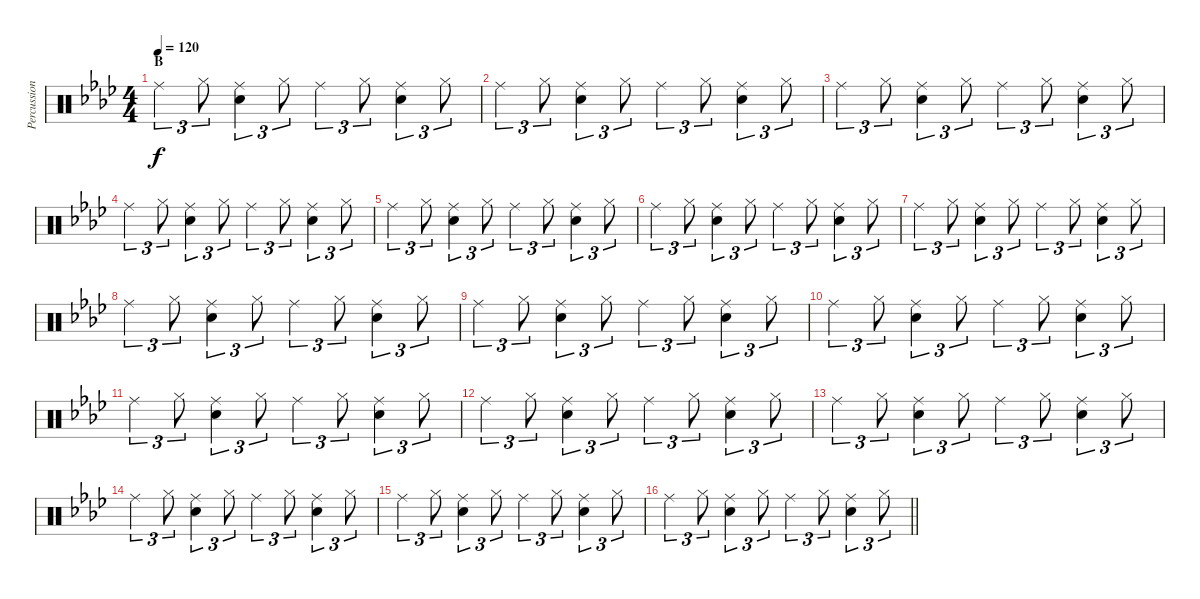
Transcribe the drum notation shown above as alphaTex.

\track ("Percussion" "Percussion") {instrument percussion}
\staff {score}
\articulation defaults
\ts (4 4)
\section ("" "B")
\tempo 120
\clef neutral
\ks ab "Ride (middle)".4{tu (3 2) dy f} "Hi-Hat (closed)".8{tu (3 2)}
("Ride (middle)" "Snare (hit) 2").4{tu (3 2)} "Hi-Hat (closed)".8{tu (3 2)} "Ride (middle)".4{tu (3 2)} "Hi-Hat (closed)".8{tu (3 2)} ("Ride (middle)" "Snare (hit) 2").4{tu (3 2)} "Hi-Hat (closed)".8{tu (3 2)} |
"Ride (middle)".4{tu (3 2)} "Hi-Hat (closed)".8{tu (3 2)} ("Ride (middle)" "Snare (hit) 2").4{tu (3 2)} "Hi-Hat (closed)".8{tu (3 2)} "Ride (middle)".4{tu (3 2)} "Hi-Hat (closed)".8{tu (3 2)} ("Ride (middle)" "Snare (hit) 2").4{tu (3 2)} "Hi-Hat (closed)".8{tu (3 2)} |
"Ride (middle)".4{tu (3 2)} "Hi-Hat (closed)".8{tu (3 2)} ("Ride (middle)" "Snare (hit) 2").4{tu (3 2)} "Hi-Hat (closed)".8{tu (3 2)} "Ride (middle)".4{tu (3 2)} "Hi-Hat (closed)".8{tu (3 2)} ("Ride (middle)" "Snare (hit) 2").4{tu (3 2)} "Hi-Hat (closed)".8{tu (3 2)} |
"Ride (middle)".4{tu (3 2)} "Hi-Hat (closed)".8{tu (3 2)} ("Ride (middle)" "Snare (hit) 2").4{tu (3 2)} "Hi-Hat (closed)".8{tu (3 2)} "Ride (middle)".4{tu (3 2)} "Hi-Hat (closed)".8{tu (3 2)} ("Ride (middle)" "Snare (hit) 2").4{tu (3 2)} "Hi-Hat (closed)".8{tu (3 2)} |
"Ride (middle)".4{tu (3 2)} "Hi-Hat (closed)".8{tu (3 2)} ("Ride (middle)" "Snare (hit) 2").4{tu (3 2)} "Hi-Hat (closed)".8{tu (3 2)} "Ride (middle)".4{tu (3 2)} "Hi-Hat (closed)".8{tu (3 2)} ("Ride (middle)" "Snare (hit) 2").4{tu (3 2)} "Hi-Hat (closed)".8{tu (3 2)} |
"Ride (middle)".4{tu (3 2)} "Hi-Hat (closed)".8{tu (3 2)} ("Ride (middle)" "Snare (hit) 2").4{tu (3 2)} "Hi-Hat (closed)".8{tu (3 2)} "Ride (middle)".4{tu (3 2)} "Hi-Hat (closed)".8{tu (3 2)} ("Ride (middle)" "Snare (hit) 2").4{tu (3 2)} "Hi-Hat (closed)".8{tu (3 2)} |
"Ride (middle)".4{tu (3 2)} "Hi-Hat (closed)".8{tu (3 2)} ("Ride (middle)" "Snare (hit) 2").4{tu (3 2)} "Hi-Hat (closed)".8{tu (3 2)} "Ride (middle)".4{tu (3 2)} "Hi-Hat (closed)".8{tu (3 2)} ("Ride (middle)" "Snare (hit) 2").4{tu (3 2)} "Hi-Hat (closed)".8{tu (3 2)} |
"Ride (middle)".4{tu (3 2)} "Hi-Hat (closed)".8{tu (3 2)} ("Ride (middle)" "Snare (hit) 2").4{tu (3 2)} "Hi-Hat (closed)".8{tu (3 2)} "Ride (middle)".4{tu (3 2)} "Hi-Hat (closed)".8{tu (3 2)} ("Ride (middle)" "Snare (hit) 2").4{tu (3 2)} "Hi-Hat (closed)".8{tu (3 2)} |
"Ride (middle)".4{tu (3 2)} "Hi-Hat (closed)".8{tu (3 2)} ("Ride (middle)" "Snare (hit) 2").4{tu (3 2)} "Hi-Hat (closed)".8{tu (3 2)} "Ride (middle)".4{tu (3 2)} "Hi-Hat (closed)".8{tu (3 2)} ("Ride (middle)" "Snare (hit) 2").4{tu (3 2)} "Hi-Hat (closed)".8{tu (3 2)} |
"Ride (middle)".4{tu (3 2)} "Hi-Hat (closed)".8{tu (3 2)} ("Ride (middle)" "Snare (hit) 2").4{tu (3 2)} "Hi-Hat (closed)".8{tu (3 2)} "Ride (middle)".4{tu (3 2)} "Hi-Hat (closed)".8{tu (3 2)} ("Ride (middle)" "Snare (hit) 2").4{tu (3 2)} "Hi-Hat (closed)".8{tu (3 2)} |
"Ride (middle)".4{tu (3 2)} "Hi-Hat (closed)".8{tu (3 2)} ("Ride (middle)" "Snare (hit) 2").4{tu (3 2)} "Hi-Hat (closed)".8{tu (3 2)} "Ride (middle)".4{tu (3 2)} "Hi-Hat (closed)".8{tu (3 2)} ("Ride (middle)" "Snare (hit) 2").4{tu (3 2)} "Hi-Hat (closed)".8{tu (3 2)} |
"Ride (middle)".4{tu (3 2)} "Hi-Hat (closed)".8{tu (3 2)} ("Ride (middle)" "Snare (hit) 2").4{tu (3 2)} "Hi-Hat (closed)".8{tu (3 2)} "Ride (middle)".4{tu (3 2)} "Hi-Hat (closed)".8{tu (3 2)} ("Ride (middle)" "Snare (hit) 2").4{tu (3 2)} "Hi-Hat (closed)".8{tu (3 2)} |
"Ride (middle)".4{tu (3 2)} "Hi-Hat (closed)".8{tu (3 2)} ("Ride (middle)" "Snare (hit) 2").4{tu (3 2)} "Hi-Hat (closed)".8{tu (3 2)} "Ride (middle)".4{tu (3 2)} "Hi-Hat (closed)".8{tu (3 2)} ("Ride (middle)" "Snare (hit) 2").4{tu (3 2)} "Hi-Hat (closed)".8{tu (3 2)} |
"Ride (middle)".4{tu (3 2)} "Hi-Hat (closed)".8{tu (3 2)} ("Ride (middle)" "Snare (hit) 2").4{tu (3 2)} "Hi-Hat (closed)".8{tu (3 2)} "Ride (middle)".4{tu (3 2)} "Hi-Hat (closed)".8{tu (3 2)} ("Ride (middle)" "Snare (hit) 2").4{tu (3 2)} "Hi-Hat (closed)".8{tu (3 2)} |
"Ride (middle)".4{tu (3 2)} "Hi-Hat (closed)".8{tu (3 2)} ("Ride (middle)" "Snare (hit) 2").4{tu (3 2)} "Hi-Hat (closed)".8{tu (3 2)} "Ride (middle)".4{tu (3 2)} "Hi-Hat (closed)".8{tu (3 2)} ("Ride (middle)" "Snare (hit) 2").4{tu (3 2)} "Hi-Hat (closed)".8{tu (3 2)} |
\barLineRight lightlight "Ride (middle)".4{tu (3 2)} "Hi-Hat (closed)".8{tu (3 2)}
("Ride (middle)" "Snare (hit) 2").4{tu (3 2)} "Hi-Hat (closed)".8{tu (3 2)} "Ride (middle)".4{tu (3 2)} "Hi-Hat (closed)".8{tu (3 2)} ("Ride (middle)" "Snare (hit) 2").4{tu (3 2)} "Hi-Hat (closed)".8{tu (3 2)}
